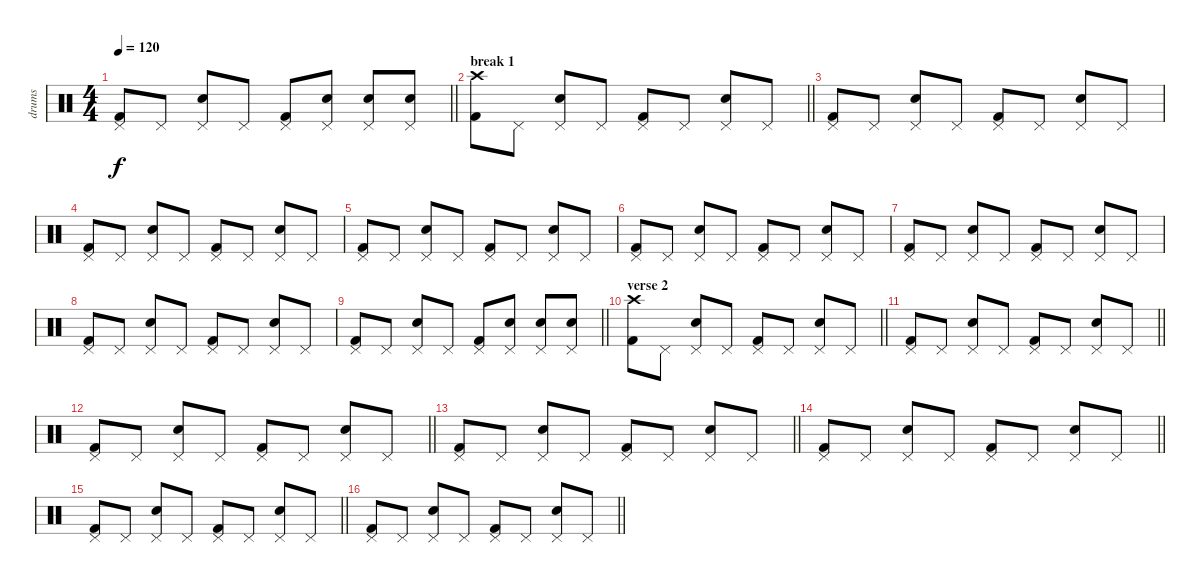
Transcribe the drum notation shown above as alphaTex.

\track ("drums" "drums") {instrument percussion}
\staff {score}
\articulation defaults
\ts (4 4)
\tempo 120
\clef neutral
\barLineRight lightlight
\ks c
("Kick (hit) 2" "Pedal Hi-Hat (hit)").8{dy f} "Pedal Hi-Hat (hit)".8 ("Electric Snare (hit)" "Pedal Hi-Hat (hit)").8 "Pedal Hi-Hat (hit)".8 ("Kick (hit) 2" "Pedal Hi-Hat (hit)").8 ("Electric Snare (hit)" "Pedal Hi-Hat (hit)").8 ("Electric Snare (hit)" "Pedal Hi-Hat (hit)").8 ("Electric Snare (hit)" "Pedal Hi-Hat (hit)").8 |
\section ("" "break 1")
\barLineRight lightlight
("Kick (hit) 2" "Crash high (hit)").8 "Pedal Hi-Hat (hit)".8 ("Electric Snare (hit)" "Pedal Hi-Hat (hit)").8 "Pedal Hi-Hat (hit)".8 ("Kick (hit) 2" "Pedal Hi-Hat (hit)").8 "Pedal Hi-Hat (hit)".8 ("Electric Snare (hit)" "Pedal Hi-Hat (hit)").8 "Pedal Hi-Hat (hit)".8 |
("Kick (hit) 2" "Pedal Hi-Hat (hit)").8 "Pedal Hi-Hat (hit)".8 ("Electric Snare (hit)" "Pedal Hi-Hat (hit)").8 "Pedal Hi-Hat (hit)".8 ("Kick (hit) 2" "Pedal Hi-Hat (hit)").8 "Pedal Hi-Hat (hit)".8 ("Electric Snare (hit)" "Pedal Hi-Hat (hit)").8 "Pedal Hi-Hat (hit)".8 |
("Kick (hit) 2" "Pedal Hi-Hat (hit)").8 "Pedal Hi-Hat (hit)".8 ("Electric Snare (hit)" "Pedal Hi-Hat (hit)").8 "Pedal Hi-Hat (hit)".8 ("Kick (hit) 2" "Pedal Hi-Hat (hit)").8 "Pedal Hi-Hat (hit)".8 ("Electric Snare (hit)" "Pedal Hi-Hat (hit)").8 "Pedal Hi-Hat (hit)".8 |
("Kick (hit) 2" "Pedal Hi-Hat (hit)").8 "Pedal Hi-Hat (hit)".8 ("Electric Snare (hit)" "Pedal Hi-Hat (hit)").8 "Pedal Hi-Hat (hit)".8 ("Kick (hit) 2" "Pedal Hi-Hat (hit)").8 "Pedal Hi-Hat (hit)".8 ("Electric Snare (hit)" "Pedal Hi-Hat (hit)").8 "Pedal Hi-Hat (hit)".8 |
("Kick (hit) 2" "Pedal Hi-Hat (hit)").8 "Pedal Hi-Hat (hit)".8 ("Electric Snare (hit)" "Pedal Hi-Hat (hit)").8 "Pedal Hi-Hat (hit)".8 ("Kick (hit) 2" "Pedal Hi-Hat (hit)").8 "Pedal Hi-Hat (hit)".8 ("Electric Snare (hit)" "Pedal Hi-Hat (hit)").8 "Pedal Hi-Hat (hit)".8 |
("Kick (hit) 2" "Pedal Hi-Hat (hit)").8 "Pedal Hi-Hat (hit)".8 ("Electric Snare (hit)" "Pedal Hi-Hat (hit)").8 "Pedal Hi-Hat (hit)".8 ("Kick (hit) 2" "Pedal Hi-Hat (hit)").8 "Pedal Hi-Hat (hit)".8 ("Electric Snare (hit)" "Pedal Hi-Hat (hit)").8 "Pedal Hi-Hat (hit)".8 |
("Kick (hit) 2" "Pedal Hi-Hat (hit)").8 "Pedal Hi-Hat (hit)".8 ("Electric Snare (hit)" "Pedal Hi-Hat (hit)").8 "Pedal Hi-Hat (hit)".8 ("Kick (hit) 2" "Pedal Hi-Hat (hit)").8 "Pedal Hi-Hat (hit)".8 ("Electric Snare (hit)" "Pedal Hi-Hat (hit)").8 "Pedal Hi-Hat (hit)".8 |
\barLineRight lightlight
("Kick (hit) 2" "Pedal Hi-Hat (hit)").8 "Pedal Hi-Hat (hit)".8 ("Electric Snare (hit)" "Pedal Hi-Hat (hit)").8 "Pedal Hi-Hat (hit)".8 ("Kick (hit) 2" "Pedal Hi-Hat (hit)").8 ("Electric Snare (hit)" "Pedal Hi-Hat (hit)").8 ("Electric Snare (hit)" "Pedal Hi-Hat (hit)").8 ("Electric Snare (hit)" "Pedal Hi-Hat (hit)").8 |
\section ("" "verse 2")
\barLineRight lightlight
("Kick (hit) 2" "Crash high (hit)").8 "Pedal Hi-Hat (hit)".8 ("Electric Snare (hit)" "Pedal Hi-Hat (hit)").8 "Pedal Hi-Hat (hit)".8 ("Kick (hit) 2" "Pedal Hi-Hat (hit)").8 "Pedal Hi-Hat (hit)".8 ("Electric Snare (hit)" "Pedal Hi-Hat (hit)").8 "Pedal Hi-Hat (hit)".8 |
\barLineRight lightlight
("Kick (hit) 2" "Pedal Hi-Hat (hit)").8 "Pedal Hi-Hat (hit)".8 ("Electric Snare (hit)" "Pedal Hi-Hat (hit)").8 "Pedal Hi-Hat (hit)".8 ("Kick (hit) 2" "Pedal Hi-Hat (hit)").8 "Pedal Hi-Hat (hit)".8 ("Electric Snare (hit)" "Pedal Hi-Hat (hit)").8 "Pedal Hi-Hat (hit)".8 |
\barLineRight lightlight
("Kick (hit) 2" "Pedal Hi-Hat (hit)").8 "Pedal Hi-Hat (hit)".8 ("Electric Snare (hit)" "Pedal Hi-Hat (hit)").8 "Pedal Hi-Hat (hit)".8 ("Kick (hit) 2" "Pedal Hi-Hat (hit)").8 "Pedal Hi-Hat (hit)".8 ("Electric Snare (hit)" "Pedal Hi-Hat (hit)").8 "Pedal Hi-Hat (hit)".8 |
\barLineRight lightlight
("Kick (hit) 2" "Pedal Hi-Hat (hit)").8 "Pedal Hi-Hat (hit)".8 ("Electric Snare (hit)" "Pedal Hi-Hat (hit)").8 "Pedal Hi-Hat (hit)".8 ("Kick (hit) 2" "Pedal Hi-Hat (hit)").8 "Pedal Hi-Hat (hit)".8 ("Electric Snare (hit)" "Pedal Hi-Hat (hit)").8 "Pedal Hi-Hat (hit)".8 |
\barLineRight lightlight
("Kick (hit) 2" "Pedal Hi-Hat (hit)").8 "Pedal Hi-Hat (hit)".8 ("Electric Snare (hit)" "Pedal Hi-Hat (hit)").8 "Pedal Hi-Hat (hit)".8 ("Kick (hit) 2" "Pedal Hi-Hat (hit)").8 "Pedal Hi-Hat (hit)".8 ("Electric Snare (hit)" "Pedal Hi-Hat (hit)").8 "Pedal Hi-Hat (hit)".8 |
\barLineRight lightlight
("Kick (hit) 2" "Pedal Hi-Hat (hit)").8 "Pedal Hi-Hat (hit)".8 ("Electric Snare (hit)" "Pedal Hi-Hat (hit)").8 "Pedal Hi-Hat (hit)".8 ("Kick (hit) 2" "Pedal Hi-Hat (hit)").8 "Pedal Hi-Hat (hit)".8 ("Electric Snare (hit)" "Pedal Hi-Hat (hit)").8 "Pedal Hi-Hat (hit)".8 |
\barLineRight lightlight
("Kick (hit) 2" "Pedal Hi-Hat (hit)").8 "Pedal Hi-Hat (hit)".8 ("Electric Snare (hit)" "Pedal Hi-Hat (hit)").8 "Pedal Hi-Hat (hit)".8 ("Kick (hit) 2" "Pedal Hi-Hat (hit)").8 "Pedal Hi-Hat (hit)".8 ("Electric Snare (hit)" "Pedal Hi-Hat (hit)").8 "Pedal Hi-Hat (hit)".8
